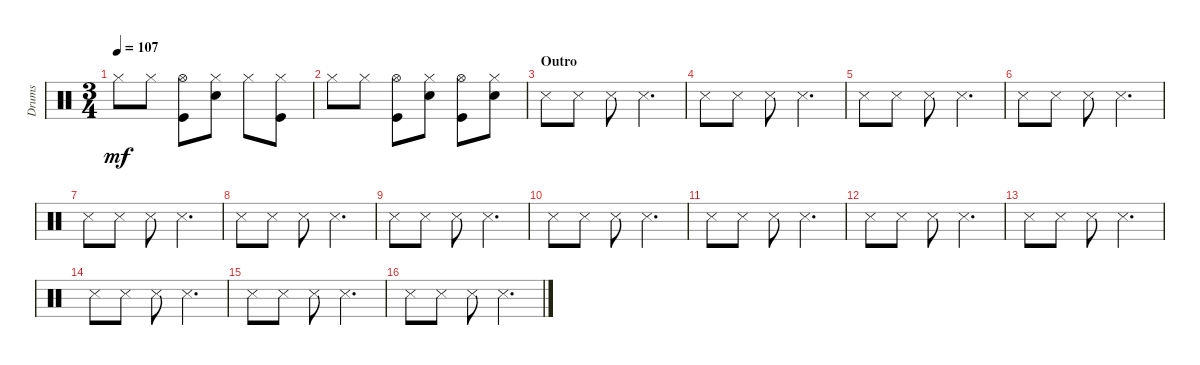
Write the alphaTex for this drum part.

\track ("Drums" "Drums") {instrument percussion}
\staff {score}
\articulation defaults
\ts (3 4)
\tempo 107
\clef neutral
\ks c "Hi-Hat (closed)".8{dy mf} "Hi-Hat (closed)".8
("Hi-Hat (open)" "Kick (hit)").8 ("Snare (hit) 2" "Hi-Hat (closed)").8 "Hi-Hat (closed)".8 ("Kick (hit)" "Hi-Hat (closed)").8 |
"Hi-Hat (closed)".8 "Hi-Hat (closed)".8 ("Hi-Hat (open)" "Kick (hit)").8 ("Hi-Hat (closed)" "Snare (hit) 2").8 ("Hi-Hat (open)" "Kick (hit)").8 ("Hi-Hat (closed)" "Snare (hit) 2").8 |
\section ("" "Outro")
"Snare (side stick) 3".8 "Snare (side stick) 3".8 "Snare (side stick) 3".8 "Snare (side stick) 3".4{d} |
"Snare (side stick) 3".8 "Snare (side stick) 3".8 "Snare (side stick) 3".8 "Snare (side stick) 3".4{d} |
"Snare (side stick) 3".8 "Snare (side stick) 3".8 "Snare (side stick) 3".8 "Snare (side stick) 3".4{d} |
"Snare (side stick) 3".8 "Snare (side stick) 3".8 "Snare (side stick) 3".8 "Snare (side stick) 3".4{d} |
"Snare (side stick) 3".8 "Snare (side stick) 3".8 "Snare (side stick) 3".8 "Snare (side stick) 3".4{d} |
"Snare (side stick) 3".8 "Snare (side stick) 3".8 "Snare (side stick) 3".8 "Snare (side stick) 3".4{d} |
"Snare (side stick) 3".8 "Snare (side stick) 3".8 "Snare (side stick) 3".8 "Snare (side stick) 3".4{d} |
"Snare (side stick) 3".8 "Snare (side stick) 3".8 "Snare (side stick) 3".8 "Snare (side stick) 3".4{d} |
"Snare (side stick) 3".8 "Snare (side stick) 3".8 "Snare (side stick) 3".8 "Snare (side stick) 3".4{d} |
"Snare (side stick) 3".8 "Snare (side stick) 3".8 "Snare (side stick) 3".8 "Snare (side stick) 3".4{d} |
"Snare (side stick) 3".8 "Snare (side stick) 3".8 "Snare (side stick) 3".8 "Snare (side stick) 3".4{d} |
"Snare (side stick) 3".8 "Snare (side stick) 3".8 "Snare (side stick) 3".8 "Snare (side stick) 3".4{d} |
"Snare (side stick) 3".8 "Snare (side stick) 3".8 "Snare (side stick) 3".8 "Snare (side stick) 3".4{d} |
"Snare (side stick) 3".8 "Snare (side stick) 3".8 "Snare (side stick) 3".8 "Snare (side stick) 3".4{d}
